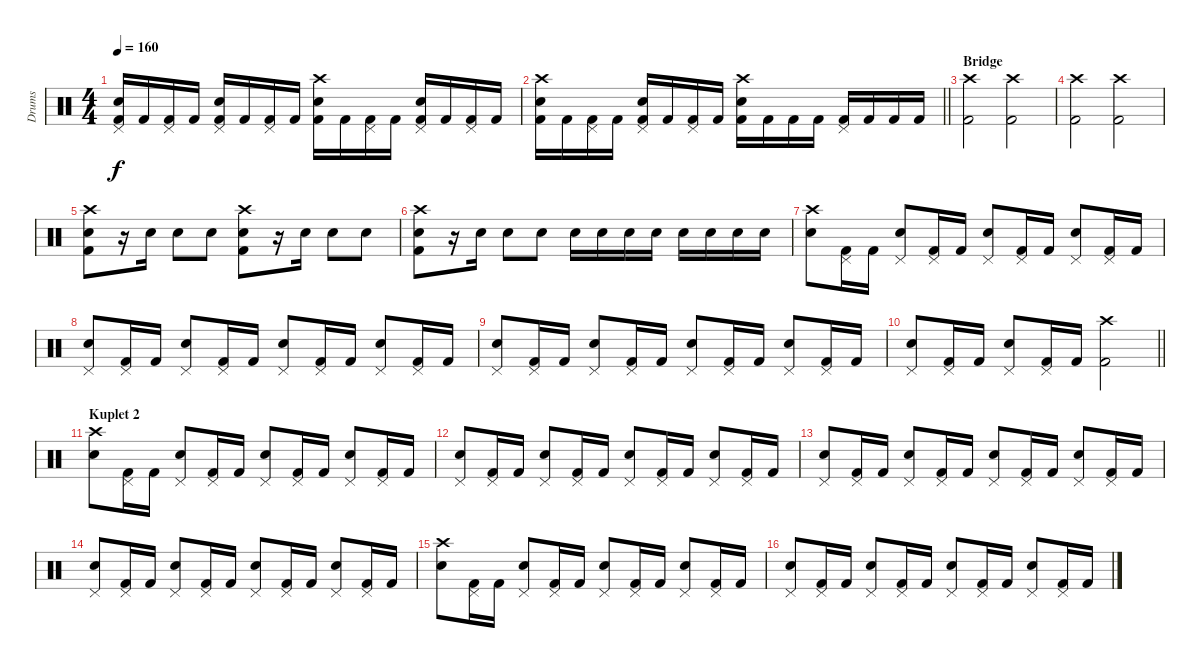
\track ("Drums" "Drums") {instrument percussion}
\staff {score}
\articulation defaults
\ts (4 4)
\tempo 160
\clef neutral
\ks c
("Pedal Hi-Hat (hit)" "Snare (hit) 2" "Kick (hit) 2").16{dy f} "Kick (hit) 2".16 ("Pedal Hi-Hat (hit)" "Kick (hit) 2").16 "Kick (hit) 2".16 ("Pedal Hi-Hat (hit)" "Snare (hit) 2" "Kick (hit) 2").16 "Kick (hit) 2".16 ("Pedal Hi-Hat (hit)" "Kick (hit) 2").16 "Kick (hit) 2".16 ("Crash high (hit)" "Snare (hit) 2" "Kick (hit) 2").16 "Kick (hit) 2".16 ("Pedal Hi-Hat (hit)" "Kick (hit) 2").16 "Kick (hit) 2".16 ("Pedal Hi-Hat (hit)" "Snare (hit) 2" "Kick (hit) 2").16 "Kick (hit) 2".16 ("Pedal Hi-Hat (hit)" "Kick (hit) 2").16 "Kick (hit) 2".16 |
\barLineRight lightlight
("Crash high (hit)" "Snare (hit) 2" "Kick (hit) 2").16 "Kick (hit) 2".16 ("Pedal Hi-Hat (hit)" "Kick (hit) 2").16 "Kick (hit) 2".16 ("Pedal Hi-Hat (hit)" "Snare (hit) 2" "Kick (hit) 2").16 "Kick (hit) 2".16 ("Pedal Hi-Hat (hit)" "Kick (hit) 2").16 "Kick (hit) 2".16 ("Crash high (hit)" "Snare (hit) 2" "Kick (hit) 2").16 "Kick (hit) 2".16 "Kick (hit) 2".16 "Kick (hit) 2".16 ("Pedal Hi-Hat (hit)" "Kick (hit) 2").16 "Kick (hit) 2".16 "Kick (hit) 2".16 "Kick (hit) 2".16 |
\section ("" "Bridge")
("Crash high (hit)" "Kick (hit) 2").2 ("Crash high (hit)" "Kick (hit) 2").2 |
("Crash high (hit)" "Kick (hit) 2").2 ("Crash high (hit)" "Kick (hit) 2").2 |
("Crash high (hit)" "Snare (hit) 2" "Kick (hit) 2").8 r.16 "Snare (hit) 2".16 "Snare (hit) 2".8 "Snare (hit) 2".8 ("Crash high (hit)" "Snare (hit) 2" "Kick (hit) 2").8 r.16 "Snare (hit) 2".16 "Snare (hit) 2".8 "Snare (hit) 2".8 |
("Crash high (hit)" "Snare (hit) 2" "Kick (hit) 2").8 r.16 "Snare (hit) 2".16 "Snare (hit) 2".8 "Snare (hit) 2".8 "Snare (hit) 2".16 "Snare (hit) 2".16 "Snare (hit) 2".16 "Snare (hit) 2".16 "Snare (hit) 2".16 "Snare (hit) 2".16 "Snare (hit) 2".16 "Snare (hit) 2".16 |
("Crash high (hit)" "Snare (hit) 2").8 ("Pedal Hi-Hat (hit)" "Kick (hit) 2").16 "Kick (hit) 2".16 ("Pedal Hi-Hat (hit)" "Snare (hit) 2").8 ("Pedal Hi-Hat (hit)" "Kick (hit) 2").16 "Kick (hit) 2".16 ("Pedal Hi-Hat (hit)" "Snare (hit) 2").8 ("Pedal Hi-Hat (hit)" "Kick (hit) 2").16 "Kick (hit) 2".16 ("Pedal Hi-Hat (hit)" "Snare (hit) 2").8 ("Pedal Hi-Hat (hit)" "Kick (hit) 2").16 "Kick (hit) 2".16 |
("Pedal Hi-Hat (hit)" "Snare (hit) 2").8 ("Pedal Hi-Hat (hit)" "Kick (hit) 2").16 "Kick (hit) 2".16 ("Pedal Hi-Hat (hit)" "Snare (hit) 2").8 ("Pedal Hi-Hat (hit)" "Kick (hit) 2").16 "Kick (hit) 2".16 ("Pedal Hi-Hat (hit)" "Snare (hit) 2").8 ("Pedal Hi-Hat (hit)" "Kick (hit) 2").16 "Kick (hit) 2".16 ("Pedal Hi-Hat (hit)" "Snare (hit) 2").8 ("Pedal Hi-Hat (hit)" "Kick (hit) 2").16 "Kick (hit) 2".16 |
("Pedal Hi-Hat (hit)" "Snare (hit) 2").8 ("Pedal Hi-Hat (hit)" "Kick (hit) 2").16 "Kick (hit) 2".16 ("Pedal Hi-Hat (hit)" "Snare (hit) 2").8 ("Pedal Hi-Hat (hit)" "Kick (hit) 2").16 "Kick (hit) 2".16 ("Pedal Hi-Hat (hit)" "Snare (hit) 2").8 ("Pedal Hi-Hat (hit)" "Kick (hit) 2").16 "Kick (hit) 2".16 ("Pedal Hi-Hat (hit)" "Snare (hit) 2").8 ("Pedal Hi-Hat (hit)" "Kick (hit) 2").16 "Kick (hit) 2".16 |
\barLineRight lightlight
("Pedal Hi-Hat (hit)" "Snare (hit) 2").8 ("Pedal Hi-Hat (hit)" "Kick (hit) 2").16 "Kick (hit) 2".16 ("Pedal Hi-Hat (hit)" "Snare (hit) 2").8 ("Pedal Hi-Hat (hit)" "Kick (hit) 2").16 "Kick (hit) 2".16 ("Crash high (hit)" "Kick (hit) 2").2 |
\section ("" "Kuplet 2")
("Crash high (hit)" "Snare (hit) 2").8 ("Pedal Hi-Hat (hit)" "Kick (hit) 2").16 "Kick (hit) 2".16 ("Pedal Hi-Hat (hit)" "Snare (hit) 2").8 ("Pedal Hi-Hat (hit)" "Kick (hit) 2").16 "Kick (hit) 2".16 ("Pedal Hi-Hat (hit)" "Snare (hit) 2").8 ("Pedal Hi-Hat (hit)" "Kick (hit) 2").16 "Kick (hit) 2".16 ("Pedal Hi-Hat (hit)" "Snare (hit) 2").8 ("Pedal Hi-Hat (hit)" "Kick (hit) 2").16 "Kick (hit) 2".16 |
("Pedal Hi-Hat (hit)" "Snare (hit) 2").8 ("Pedal Hi-Hat (hit)" "Kick (hit) 2").16 "Kick (hit) 2".16 ("Pedal Hi-Hat (hit)" "Snare (hit) 2").8 ("Pedal Hi-Hat (hit)" "Kick (hit) 2").16 "Kick (hit) 2".16 ("Pedal Hi-Hat (hit)" "Snare (hit) 2").8 ("Pedal Hi-Hat (hit)" "Kick (hit) 2").16 "Kick (hit) 2".16 ("Pedal Hi-Hat (hit)" "Snare (hit) 2").8 ("Pedal Hi-Hat (hit)" "Kick (hit) 2").16 "Kick (hit) 2".16 |
("Pedal Hi-Hat (hit)" "Snare (hit) 2").8 ("Pedal Hi-Hat (hit)" "Kick (hit) 2").16 "Kick (hit) 2".16 ("Pedal Hi-Hat (hit)" "Snare (hit) 2").8 ("Pedal Hi-Hat (hit)" "Kick (hit) 2").16 "Kick (hit) 2".16 ("Pedal Hi-Hat (hit)" "Snare (hit) 2").8 ("Pedal Hi-Hat (hit)" "Kick (hit) 2").16 "Kick (hit) 2".16 ("Pedal Hi-Hat (hit)" "Snare (hit) 2").8 ("Pedal Hi-Hat (hit)" "Kick (hit) 2").16 "Kick (hit) 2".16 |
("Pedal Hi-Hat (hit)" "Snare (hit) 2").8 ("Pedal Hi-Hat (hit)" "Kick (hit) 2").16 "Kick (hit) 2".16 ("Pedal Hi-Hat (hit)" "Snare (hit) 2").8 ("Pedal Hi-Hat (hit)" "Kick (hit) 2").16 "Kick (hit) 2".16 ("Pedal Hi-Hat (hit)" "Snare (hit) 2").8 ("Pedal Hi-Hat (hit)" "Kick (hit) 2").16 "Kick (hit) 2".16 ("Pedal Hi-Hat (hit)" "Snare (hit) 2").8 ("Pedal Hi-Hat (hit)" "Kick (hit) 2").16 "Kick (hit) 2".16 |
("Crash high (hit)" "Snare (hit) 2").8 ("Pedal Hi-Hat (hit)" "Kick (hit) 2").16 "Kick (hit) 2".16 ("Pedal Hi-Hat (hit)" "Snare (hit) 2").8 ("Pedal Hi-Hat (hit)" "Kick (hit) 2").16 "Kick (hit) 2".16 ("Pedal Hi-Hat (hit)" "Snare (hit) 2").8 ("Pedal Hi-Hat (hit)" "Kick (hit) 2").16 "Kick (hit) 2".16 ("Pedal Hi-Hat (hit)" "Snare (hit) 2").8 ("Pedal Hi-Hat (hit)" "Kick (hit) 2").16 "Kick (hit) 2".16 |
("Pedal Hi-Hat (hit)" "Snare (hit) 2").8 ("Pedal Hi-Hat (hit)" "Kick (hit) 2").16 "Kick (hit) 2".16 ("Pedal Hi-Hat (hit)" "Snare (hit) 2").8 ("Pedal Hi-Hat (hit)" "Kick (hit) 2").16 "Kick (hit) 2".16 ("Pedal Hi-Hat (hit)" "Snare (hit) 2").8 ("Pedal Hi-Hat (hit)" "Kick (hit) 2").16 "Kick (hit) 2".16 ("Pedal Hi-Hat (hit)" "Snare (hit) 2").8 ("Pedal Hi-Hat (hit)" "Kick (hit) 2").16 "Kick (hit) 2".16
